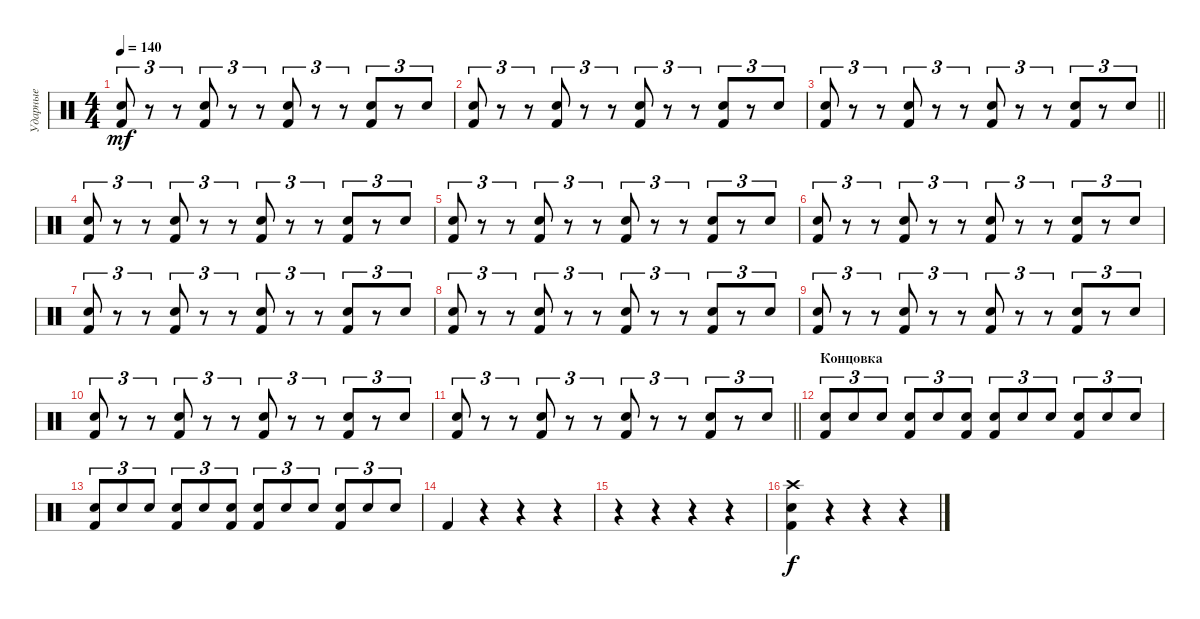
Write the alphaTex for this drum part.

\track ("Ударные" "Ударные") {instrument percussion}
\staff {score}
\articulation defaults
\ts (4 4)
\tempo 140
\clef neutral
\ks c
("Electric Snare (hit)" "Kick (hit) 2").8{tu (3 2) dy mf} r.8{tu (3 2)} r.8{tu (3 2)} ("Electric Snare (hit)" "Kick (hit) 2").8{tu (3 2)} r.8{tu (3 2)} r.8{tu (3 2)} ("Electric Snare (hit)" "Kick (hit) 2").8{tu (3 2)} r.8{tu (3 2)} r.8{tu (3 2)} ("Electric Snare (hit)" "Kick (hit) 2").8{tu (3 2)} r.8{tu (3 2)} "Electric Snare (hit)".8{tu (3 2)} |
("Electric Snare (hit)" "Kick (hit) 2").8{tu (3 2)} r.8{tu (3 2)} r.8{tu (3 2)} ("Electric Snare (hit)" "Kick (hit) 2").8{tu (3 2)} r.8{tu (3 2)} r.8{tu (3 2)} ("Electric Snare (hit)" "Kick (hit) 2").8{tu (3 2)} r.8{tu (3 2)} r.8{tu (3 2)} ("Electric Snare (hit)" "Kick (hit) 2").8{tu (3 2)} r.8{tu (3 2)} "Electric Snare (hit)".8{tu (3 2)} |
\barLineRight lightlight
("Electric Snare (hit)" "Kick (hit) 2").8{tu (3 2)} r.8{tu (3 2)} r.8{tu (3 2)} ("Electric Snare (hit)" "Kick (hit) 2").8{tu (3 2)} r.8{tu (3 2)} r.8{tu (3 2)} ("Electric Snare (hit)" "Kick (hit) 2").8{tu (3 2)} r.8{tu (3 2)} r.8{tu (3 2)} ("Electric Snare (hit)" "Kick (hit) 2").8{tu (3 2)} r.8{tu (3 2)} "Electric Snare (hit)".8{tu (3 2)} |
("Electric Snare (hit)" "Kick (hit) 2").8{tu (3 2)} r.8{tu (3 2)} r.8{tu (3 2)} ("Electric Snare (hit)" "Kick (hit) 2").8{tu (3 2)} r.8{tu (3 2)} r.8{tu (3 2)} ("Electric Snare (hit)" "Kick (hit) 2").8{tu (3 2)} r.8{tu (3 2)} r.8{tu (3 2)} ("Electric Snare (hit)" "Kick (hit) 2").8{tu (3 2)} r.8{tu (3 2)} "Electric Snare (hit)".8{tu (3 2)} |
("Electric Snare (hit)" "Kick (hit) 2").8{tu (3 2)} r.8{tu (3 2)} r.8{tu (3 2)} ("Electric Snare (hit)" "Kick (hit) 2").8{tu (3 2)} r.8{tu (3 2)} r.8{tu (3 2)} ("Electric Snare (hit)" "Kick (hit) 2").8{tu (3 2)} r.8{tu (3 2)} r.8{tu (3 2)} ("Electric Snare (hit)" "Kick (hit) 2").8{tu (3 2)} r.8{tu (3 2)} "Electric Snare (hit)".8{tu (3 2)} |
("Electric Snare (hit)" "Kick (hit) 2").8{tu (3 2)} r.8{tu (3 2)} r.8{tu (3 2)} ("Electric Snare (hit)" "Kick (hit) 2").8{tu (3 2)} r.8{tu (3 2)} r.8{tu (3 2)} ("Electric Snare (hit)" "Kick (hit) 2").8{tu (3 2)} r.8{tu (3 2)} r.8{tu (3 2)} ("Electric Snare (hit)" "Kick (hit) 2").8{tu (3 2)} r.8{tu (3 2)} "Electric Snare (hit)".8{tu (3 2)} |
("Electric Snare (hit)" "Kick (hit) 2").8{tu (3 2)} r.8{tu (3 2)} r.8{tu (3 2)} ("Electric Snare (hit)" "Kick (hit) 2").8{tu (3 2)} r.8{tu (3 2)} r.8{tu (3 2)} ("Electric Snare (hit)" "Kick (hit) 2").8{tu (3 2)} r.8{tu (3 2)} r.8{tu (3 2)} ("Electric Snare (hit)" "Kick (hit) 2").8{tu (3 2)} r.8{tu (3 2)} "Electric Snare (hit)".8{tu (3 2)} |
("Electric Snare (hit)" "Kick (hit) 2").8{tu (3 2)} r.8{tu (3 2)} r.8{tu (3 2)} ("Electric Snare (hit)" "Kick (hit) 2").8{tu (3 2)} r.8{tu (3 2)} r.8{tu (3 2)} ("Electric Snare (hit)" "Kick (hit) 2").8{tu (3 2)} r.8{tu (3 2)} r.8{tu (3 2)} ("Electric Snare (hit)" "Kick (hit) 2").8{tu (3 2)} r.8{tu (3 2)} "Electric Snare (hit)".8{tu (3 2)} |
("Electric Snare (hit)" "Kick (hit) 2").8{tu (3 2)} r.8{tu (3 2)} r.8{tu (3 2)} ("Electric Snare (hit)" "Kick (hit) 2").8{tu (3 2)} r.8{tu (3 2)} r.8{tu (3 2)} ("Electric Snare (hit)" "Kick (hit) 2").8{tu (3 2)} r.8{tu (3 2)} r.8{tu (3 2)} ("Electric Snare (hit)" "Kick (hit) 2").8{tu (3 2)} r.8{tu (3 2)} "Electric Snare (hit)".8{tu (3 2)} |
("Electric Snare (hit)" "Kick (hit) 2").8{tu (3 2)} r.8{tu (3 2)} r.8{tu (3 2)} ("Electric Snare (hit)" "Kick (hit) 2").8{tu (3 2)} r.8{tu (3 2)} r.8{tu (3 2)} ("Electric Snare (hit)" "Kick (hit) 2").8{tu (3 2)} r.8{tu (3 2)} r.8{tu (3 2)} ("Electric Snare (hit)" "Kick (hit) 2").8{tu (3 2)} r.8{tu (3 2)} "Electric Snare (hit)".8{tu (3 2)} |
\barLineRight lightlight
("Electric Snare (hit)" "Kick (hit) 2").8{tu (3 2)} r.8{tu (3 2)} r.8{tu (3 2)} ("Electric Snare (hit)" "Kick (hit) 2").8{tu (3 2)} r.8{tu (3 2)} r.8{tu (3 2)} ("Electric Snare (hit)" "Kick (hit) 2").8{tu (3 2)} r.8{tu (3 2)} r.8{tu (3 2)} ("Electric Snare (hit)" "Kick (hit) 2").8{tu (3 2)} r.8{tu (3 2)} "Electric Snare (hit)".8{tu (3 2)} |
\section ("" "Концовка")
("Electric Snare (hit)" "Kick (hit) 2").8{tu (3 2)} "Electric Snare (hit)".8{tu (3 2)} "Electric Snare (hit)".8{tu (3 2)} ("Electric Snare (hit)" "Kick (hit) 2").8{tu (3 2)} "Electric Snare (hit)".8{tu (3 2)} ("Electric Snare (hit)" "Kick (hit) 2").8{tu (3 2)} ("Electric Snare (hit)" "Kick (hit) 2").8{tu (3 2)} "Electric Snare (hit)".8{tu (3 2)} "Electric Snare (hit)".8{tu (3 2)} ("Electric Snare (hit)" "Kick (hit) 2").8{tu (3 2)} "Electric Snare (hit)".8{tu (3 2)} "Electric Snare (hit)".8{tu (3 2)} |
("Electric Snare (hit)" "Kick (hit) 2").8{tu (3 2)} "Electric Snare (hit)".8{tu (3 2)} "Electric Snare (hit)".8{tu (3 2)} ("Electric Snare (hit)" "Kick (hit) 2").8{tu (3 2)} "Electric Snare (hit)".8{tu (3 2)} ("Electric Snare (hit)" "Kick (hit) 2").8{tu (3 2)} ("Electric Snare (hit)" "Kick (hit) 2").8{tu (3 2)} "Electric Snare (hit)".8{tu (3 2)} "Electric Snare (hit)".8{tu (3 2)} ("Electric Snare (hit)" "Kick (hit) 2").8{tu (3 2)} "Electric Snare (hit)".8{tu (3 2)} "Electric Snare (hit)".8{tu (3 2)} |
"Kick (hit) 2".4 r.4 r.4 r.4 |
r.4 r.4 r.4 r.4 |
("Crash high (hit)" "Electric Snare (hit)" "Kick (hit) 2").4{dy f} r.4 r.4 r.4
